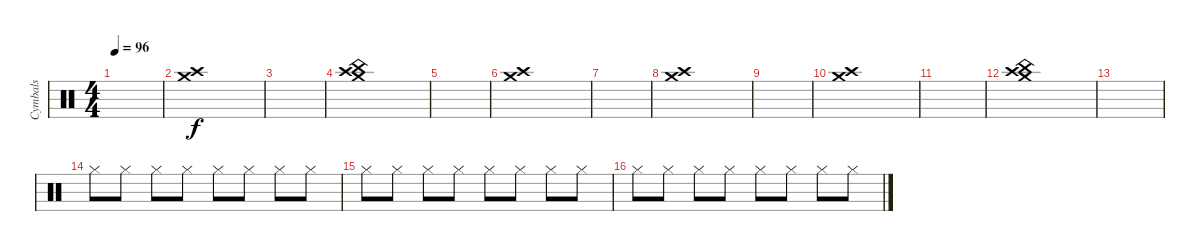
\track ("Cymbals" "Cymbals") {instrument percussion}
\staff {score}
\articulation defaults
\ts (4 4)
\tempo 96
\clef neutral
\ks c
|
("Crash medium (hit)" "Crash high (hit)").1 |
|
("China (hit)" "Crash medium (hit)" "Crash high (hit)").1 |
|
("Crash medium (hit)" "Crash high (hit)").1 |
|
("Crash medium (hit)" "Crash high (hit)").1 |
|
("Crash medium (hit)" "Crash high (hit)").1 |
|
("China (hit)" "Crash medium (hit)" "Crash high (hit)").1 |
|
"Hi-Hat (closed)".8 "Hi-Hat (closed)".8 "Hi-Hat (closed)".8 "Hi-Hat (closed)".8 "Hi-Hat (closed)".8 "Hi-Hat (closed)".8 "Hi-Hat (closed)".8 "Hi-Hat (closed)".8 |
"Hi-Hat (closed)".8 "Hi-Hat (closed)".8 "Hi-Hat (closed)".8 "Hi-Hat (closed)".8 "Hi-Hat (closed)".8 "Hi-Hat (closed)".8 "Hi-Hat (closed)".8 "Hi-Hat (closed)".8 |
"Hi-Hat (closed)".8 "Hi-Hat (closed)".8 "Hi-Hat (closed)".8 "Hi-Hat (closed)".8 "Hi-Hat (closed)".8 "Hi-Hat (closed)".8 "Hi-Hat (closed)".8 "Hi-Hat (closed)".8
